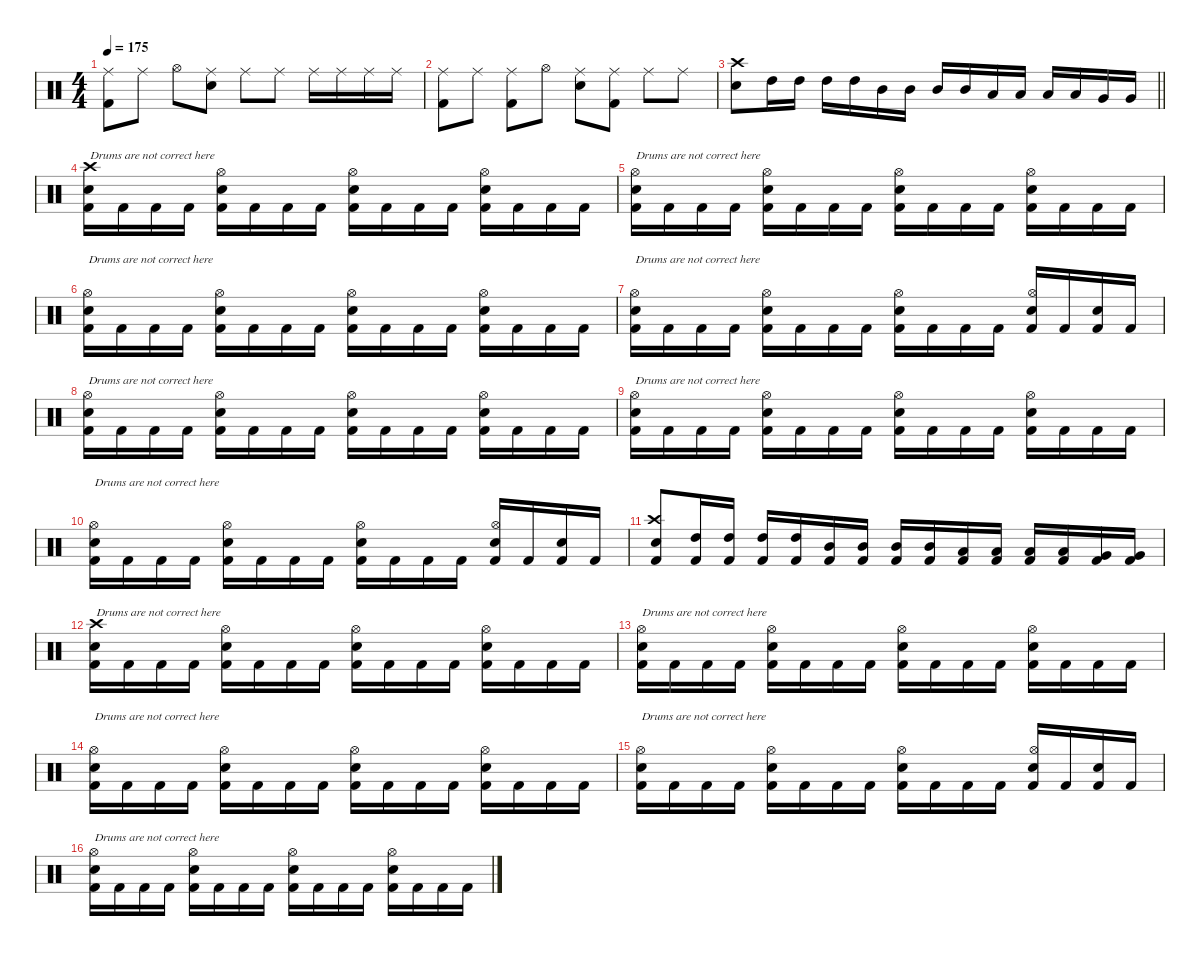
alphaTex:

\defaultSystemsLayout 4
\hideDynamics
\bracketExtendMode nobrackets
\singleTrackTrackNamePolicy hidden
\multiTrackTrackNamePolicy hidden
\firstSystemTrackNameMode fullname
\firstSystemTrackNameOrientation horizontal
\otherSystemsTrackNameOrientation horizontal
\track ("Fredrik Andersson" "drm.") {instrument percussion}
\staff {score}
\articulation defaults
\ts (4 4)
\tempo 175
\clef neutral
\ks c
("Ride (middle)" "Kick (hit) 2").8{dy f beam Down} "Ride (middle)".8{beam Down} "Hi-Hat (open)".8{beam Down} ("Ride (middle)" "Snare (hit) 2").8{beam Down} "Ride (middle)".8{beam Down} "Ride (middle)".8{beam Down} "Ride (middle)".16{beam Down} "Ride (middle)".16{beam Down} "Ride (middle)".16{beam Down} "Ride (middle)".16{beam Down} |
("Ride (middle)" "Kick (hit) 2").8{beam Down} "Ride (middle)".8{beam Down} ("Ride (middle)" "Kick (hit) 2").8{beam Down} "Hi-Hat (open)".8{beam Down} ("Ride (middle)" "Snare (hit) 2").8{beam Down} ("Ride (middle)" "Kick (hit) 2").8{beam Down} "Ride (middle)".8{beam Down} "Ride (middle)".8{beam Down} |
\barLineRight lightlight
("Crash high (hit)" "Snare (hit) 2").8{beam Down} "High Tom (hit)".16{beam Down} "High Tom (hit)".16{beam Down} "High Tom (hit)".16{beam Down} "High Tom (hit)".16{beam Down} "Mid Tom (hit)".16{beam Down} "Mid Tom (hit)".16{beam Down} "Mid Tom (hit)".16{beam Up} "Mid Tom (hit)".16{beam Up} "Low Tom (hit)".16{beam Up} "Low Tom (hit)".16{beam Up} "Low Tom (hit)".16{beam Up} "Low Tom (hit)".16{beam Up} "Very Low Tom (hit)".16{beam Up} "Very Low Tom (hit)".16{beam Up} |
("Crash high (hit)" "Snare (hit) 2" "Kick (hit) 2").16{txt "Drums are not correct here" beam Down} "Kick (hit) 2".16{beam Down} "Kick (hit) 2".16{beam Down} "Kick (hit) 2".16{beam Down} ("Hi-Hat (open)" "Snare (hit) 2" "Kick (hit) 2").16{beam Down} "Kick (hit) 2".16{beam Down} "Kick (hit) 2".16{beam Down} "Kick (hit) 2".16{beam Down} ("Hi-Hat (open)" "Snare (hit) 2" "Kick (hit) 2").16{beam Down} "Kick (hit) 2".16{beam Down} "Kick (hit) 2".16{beam Down} "Kick (hit) 2".16{beam Down} ("Hi-Hat (open)" "Snare (hit) 2" "Kick (hit) 2").16{beam Down} "Kick (hit) 2".16{beam Down} "Kick (hit) 2".16{beam Down} "Kick (hit) 2".16{beam Down} |
("Hi-Hat (open)" "Snare (hit) 2" "Kick (hit) 2").16{txt "Drums are not correct here" beam Down} "Kick (hit) 2".16{beam Down} "Kick (hit) 2".16{beam Down} "Kick (hit) 2".16{beam Down} ("Hi-Hat (open)" "Snare (hit) 2" "Kick (hit) 2").16{beam Down} "Kick (hit) 2".16{beam Down} "Kick (hit) 2".16{beam Down} "Kick (hit) 2".16{beam Down} ("Hi-Hat (open)" "Snare (hit) 2" "Kick (hit) 2").16{beam Down} "Kick (hit) 2".16{beam Down} "Kick (hit) 2".16{beam Down} "Kick (hit) 2".16{beam Down} ("Hi-Hat (open)" "Snare (hit) 2" "Kick (hit) 2").16{beam Down} "Kick (hit) 2".16{beam Down} "Kick (hit) 2".16{beam Down} "Kick (hit) 2".16{beam Down} |
("Hi-Hat (open)" "Snare (hit) 2" "Kick (hit) 2").16{txt "Drums are not correct here" beam Down} "Kick (hit) 2".16{beam Down} "Kick (hit) 2".16{beam Down} "Kick (hit) 2".16{beam Down} ("Hi-Hat (open)" "Snare (hit) 2" "Kick (hit) 2").16{beam Down} "Kick (hit) 2".16{beam Down} "Kick (hit) 2".16{beam Down} "Kick (hit) 2".16{beam Down} ("Hi-Hat (open)" "Snare (hit) 2" "Kick (hit) 2").16{beam Down} "Kick (hit) 2".16{beam Down} "Kick (hit) 2".16{beam Down} "Kick (hit) 2".16{beam Down} ("Hi-Hat (open)" "Snare (hit) 2" "Kick (hit) 2").16{beam Down} "Kick (hit) 2".16{beam Down} "Kick (hit) 2".16{beam Down} "Kick (hit) 2".16{beam Down} |
("Hi-Hat (open)" "Snare (hit) 2" "Kick (hit) 2").16{txt "Drums are not correct here" beam Down} "Kick (hit) 2".16{beam Down} "Kick (hit) 2".16{beam Down} "Kick (hit) 2".16{beam Down} ("Hi-Hat (open)" "Snare (hit) 2" "Kick (hit) 2").16{beam Down} "Kick (hit) 2".16{beam Down} "Kick (hit) 2".16{beam Down} "Kick (hit) 2".16{beam Down} ("Hi-Hat (open)" "Snare (hit) 2" "Kick (hit) 2").16{beam Down} "Kick (hit) 2".16{beam Down} "Kick (hit) 2".16{beam Down} "Kick (hit) 2".16{beam Down} ("Hi-Hat (open)" "Snare (hit) 2" "Kick (hit) 2").16{beam Up} "Kick (hit) 2".16{beam Up} ("Snare (hit) 2" "Kick (hit) 2").16{beam Up} "Kick (hit) 2".16{beam Up} |
("Hi-Hat (open)" "Snare (hit) 2" "Kick (hit) 2").16{txt "Drums are not correct here" beam Down} "Kick (hit) 2".16{beam Down} "Kick (hit) 2".16{beam Down} "Kick (hit) 2".16{beam Down} ("Hi-Hat (open)" "Snare (hit) 2" "Kick (hit) 2").16{beam Down} "Kick (hit) 2".16{beam Down} "Kick (hit) 2".16{beam Down} "Kick (hit) 2".16{beam Down} ("Hi-Hat (open)" "Snare (hit) 2" "Kick (hit) 2").16{beam Down} "Kick (hit) 2".16{beam Down} "Kick (hit) 2".16{beam Down} "Kick (hit) 2".16{beam Down} ("Hi-Hat (open)" "Snare (hit) 2" "Kick (hit) 2").16{beam Down} "Kick (hit) 2".16{beam Down} "Kick (hit) 2".16{beam Down} "Kick (hit) 2".16{beam Down} |
("Hi-Hat (open)" "Snare (hit) 2" "Kick (hit) 2").16{txt "Drums are not correct here" beam Down} "Kick (hit) 2".16{beam Down} "Kick (hit) 2".16{beam Down} "Kick (hit) 2".16{beam Down} ("Hi-Hat (open)" "Snare (hit) 2" "Kick (hit) 2").16{beam Down} "Kick (hit) 2".16{beam Down} "Kick (hit) 2".16{beam Down} "Kick (hit) 2".16{beam Down} ("Hi-Hat (open)" "Snare (hit) 2" "Kick (hit) 2").16{beam Down} "Kick (hit) 2".16{beam Down} "Kick (hit) 2".16{beam Down} "Kick (hit) 2".16{beam Down} ("Hi-Hat (open)" "Snare (hit) 2" "Kick (hit) 2").16{beam Down} "Kick (hit) 2".16{beam Down} "Kick (hit) 2".16{beam Down} "Kick (hit) 2".16{beam Down} |
("Hi-Hat (open)" "Snare (hit) 2" "Kick (hit) 2").16{txt "Drums are not correct here" beam Down} "Kick (hit) 2".16{beam Down} "Kick (hit) 2".16{beam Down} "Kick (hit) 2".16{beam Down} ("Hi-Hat (open)" "Snare (hit) 2" "Kick (hit) 2").16{beam Down} "Kick (hit) 2".16{beam Down} "Kick (hit) 2".16{beam Down} "Kick (hit) 2".16{beam Down} ("Hi-Hat (open)" "Snare (hit) 2" "Kick (hit) 2").16{beam Down} "Kick (hit) 2".16{beam Down} "Kick (hit) 2".16{beam Down} "Kick (hit) 2".16{beam Down} ("Hi-Hat (open)" "Snare (hit) 2" "Kick (hit) 2").16{beam Up} "Kick (hit) 2".16{beam Up} ("Snare (hit) 2" "Kick (hit) 2").16{beam Up} "Kick (hit) 2".16{beam Up} |
("Crash high (hit)" "Snare (hit) 2" "Kick (hit) 2").8{beam Up} ("High Tom (hit)" "Kick (hit) 2").16{beam Up} ("High Tom (hit)" "Kick (hit) 2").16{beam Up} ("High Tom (hit)" "Kick (hit) 2").16{beam Up} ("High Tom (hit)" "Kick (hit) 2").16{beam Up} ("Mid Tom (hit)" "Kick (hit) 2").16{beam Up} ("Mid Tom (hit)" "Kick (hit) 2").16{beam Up} ("Mid Tom (hit)" "Kick (hit) 2").16{beam Up} ("Mid Tom (hit)" "Kick (hit) 2").16{beam Up} ("Low Tom (hit)" "Kick (hit) 2").16{beam Up} ("Low Tom (hit)" "Kick (hit) 2").16{beam Up} ("Low Tom (hit)" "Kick (hit) 2").16{beam Up} ("Low Tom (hit)" "Kick (hit) 2").16{beam Up} ("Very Low Tom (hit)" "Kick (hit) 2").16{beam Up} ("Very Low Tom (hit)" "Kick (hit) 2").16{beam Up} |
("Crash high (hit)" "Snare (hit) 2" "Kick (hit) 2").16{txt "Drums are not correct here" beam Down} "Kick (hit) 2".16{beam Down} "Kick (hit) 2".16{beam Down} "Kick (hit) 2".16{beam Down} ("Hi-Hat (open)" "Snare (hit) 2" "Kick (hit) 2").16{beam Down} "Kick (hit) 2".16{beam Down} "Kick (hit) 2".16{beam Down} "Kick (hit) 2".16{beam Down} ("Hi-Hat (open)" "Snare (hit) 2" "Kick (hit) 2").16{beam Down} "Kick (hit) 2".16{beam Down} "Kick (hit) 2".16{beam Down} "Kick (hit) 2".16{beam Down} ("Hi-Hat (open)" "Snare (hit) 2" "Kick (hit) 2").16{beam Down} "Kick (hit) 2".16{beam Down} "Kick (hit) 2".16{beam Down} "Kick (hit) 2".16{beam Down} |
("Hi-Hat (open)" "Snare (hit) 2" "Kick (hit) 2").16{txt "Drums are not correct here" beam Down} "Kick (hit) 2".16{beam Down} "Kick (hit) 2".16{beam Down} "Kick (hit) 2".16{beam Down} ("Hi-Hat (open)" "Snare (hit) 2" "Kick (hit) 2").16{beam Down} "Kick (hit) 2".16{beam Down} "Kick (hit) 2".16{beam Down} "Kick (hit) 2".16{beam Down} ("Hi-Hat (open)" "Snare (hit) 2" "Kick (hit) 2").16{beam Down} "Kick (hit) 2".16{beam Down} "Kick (hit) 2".16{beam Down} "Kick (hit) 2".16{beam Down} ("Hi-Hat (open)" "Snare (hit) 2" "Kick (hit) 2").16{beam Down} "Kick (hit) 2".16{beam Down} "Kick (hit) 2".16{beam Down} "Kick (hit) 2".16{beam Down} |
("Hi-Hat (open)" "Snare (hit) 2" "Kick (hit) 2").16{txt "Drums are not correct here" beam Down} "Kick (hit) 2".16{beam Down} "Kick (hit) 2".16{beam Down} "Kick (hit) 2".16{beam Down} ("Hi-Hat (open)" "Snare (hit) 2" "Kick (hit) 2").16{beam Down} "Kick (hit) 2".16{beam Down} "Kick (hit) 2".16{beam Down} "Kick (hit) 2".16{beam Down} ("Hi-Hat (open)" "Snare (hit) 2" "Kick (hit) 2").16{beam Down} "Kick (hit) 2".16{beam Down} "Kick (hit) 2".16{beam Down} "Kick (hit) 2".16{beam Down} ("Hi-Hat (open)" "Snare (hit) 2" "Kick (hit) 2").16{beam Down} "Kick (hit) 2".16{beam Down} "Kick (hit) 2".16{beam Down} "Kick (hit) 2".16{beam Down} |
("Hi-Hat (open)" "Snare (hit) 2" "Kick (hit) 2").16{txt "Drums are not correct here" beam Down} "Kick (hit) 2".16{beam Down} "Kick (hit) 2".16{beam Down} "Kick (hit) 2".16{beam Down} ("Hi-Hat (open)" "Snare (hit) 2" "Kick (hit) 2").16{beam Down} "Kick (hit) 2".16{beam Down} "Kick (hit) 2".16{beam Down} "Kick (hit) 2".16{beam Down} ("Hi-Hat (open)" "Snare (hit) 2" "Kick (hit) 2").16{beam Down} "Kick (hit) 2".16{beam Down} "Kick (hit) 2".16{beam Down} "Kick (hit) 2".16{beam Down} ("Hi-Hat (open)" "Snare (hit) 2" "Kick (hit) 2").16{beam Up} "Kick (hit) 2".16{beam Up} ("Snare (hit) 2" "Kick (hit) 2").16{beam Up} "Kick (hit) 2".16{beam Up} |
("Hi-Hat (open)" "Snare (hit) 2" "Kick (hit) 2").16{txt "Drums are not correct here" beam Down} "Kick (hit) 2".16{beam Down} "Kick (hit) 2".16{beam Down} "Kick (hit) 2".16{beam Down} ("Hi-Hat (open)" "Snare (hit) 2" "Kick (hit) 2").16{beam Down} "Kick (hit) 2".16{beam Down} "Kick (hit) 2".16{beam Down} "Kick (hit) 2".16{beam Down} ("Hi-Hat (open)" "Snare (hit) 2" "Kick (hit) 2").16{beam Down} "Kick (hit) 2".16{beam Down} "Kick (hit) 2".16{beam Down} "Kick (hit) 2".16{beam Down} ("Hi-Hat (open)" "Snare (hit) 2" "Kick (hit) 2").16{beam Down} "Kick (hit) 2".16{beam Down} "Kick (hit) 2".16{beam Down} "Kick (hit) 2".16{beam Down}
